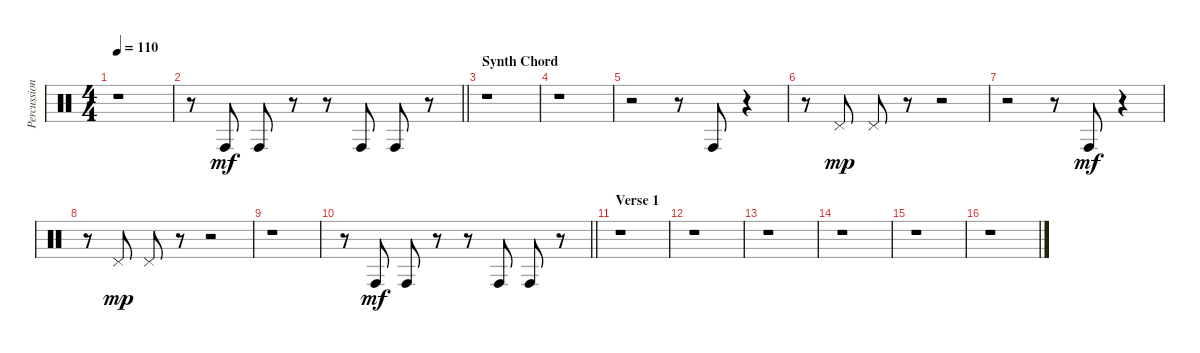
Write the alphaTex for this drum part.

\track ("Percussion" "Percussion") {instrument percussion}
\staff {score}
\articulation defaults
\ts (4 4)
\tempo 110
\clef neutral
\ks c
r.1{dy mp} |
\barLineRight lightlight
r.8{balance 1} "Conga high (hit)".8{dy mf} "Conga high (hit)".8 r.8 r.8 "Conga high (hit)".8 "Conga high (hit)".8 r.8 |
\section ("" "Synth Chord")
r.1 |
r.1 |
r.2 r.8{balance 1} "Conga high (hit)".8 r.4 |
r.8{balance 15} "Pedal Hi-Hat (hit)".8{dy mp} "Pedal Hi-Hat (hit)".8 r.8 r.2 |
r.2 r.8{balance 1} "Conga high (hit)".8{dy mf} r.4 |
r.8{balance 15} "Pedal Hi-Hat (hit)".8{dy mp} "Pedal Hi-Hat (hit)".8 r.8 r.2 |
r.1 |
\barLineRight lightlight
r.8{balance 1} "Conga high (hit)".8{dy mf} "Conga high (hit)".8 r.8 r.8 "Conga high (hit)".8 "Conga high (hit)".8 r.8 |
\section ("" "Verse 1")
r.1 |
r.1 |
r.1 |
r.1 |
r.1 |
r.1
